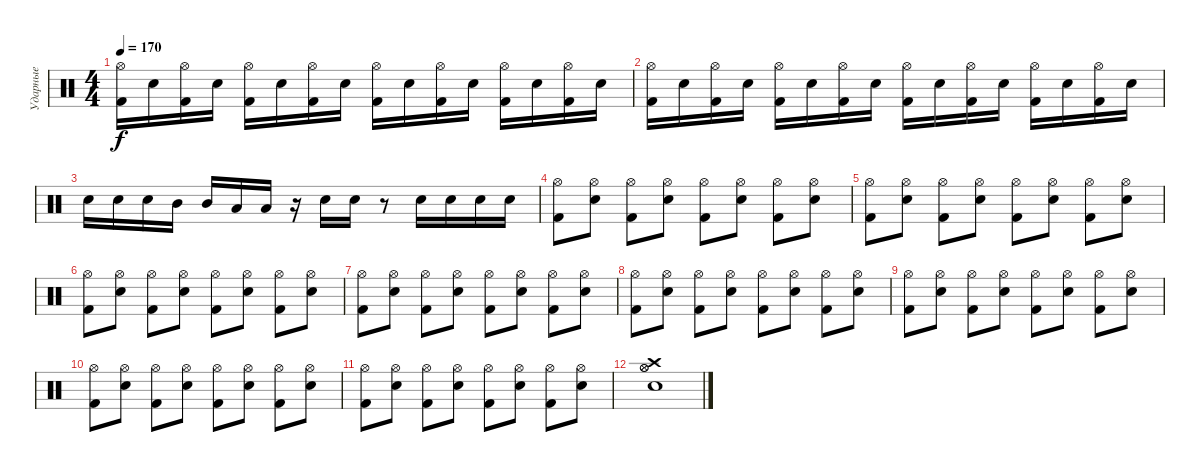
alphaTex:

\track ("Ударные" "Ударные") {instrument percussion}
\staff {score}
\articulation defaults
\ts (4 4)
\tempo 170
\clef neutral
\ks c
("Hi-Hat (open)" "Kick (hit) 2").16{dy f} "Snare (hit) 2".16 ("Hi-Hat (open)" "Kick (hit) 2").16 "Snare (hit) 2".16 ("Hi-Hat (open)" "Kick (hit) 2").16 "Snare (hit) 2".16 ("Hi-Hat (open)" "Kick (hit) 2").16 "Snare (hit) 2".16 ("Hi-Hat (open)" "Kick (hit) 2").16 "Snare (hit) 2".16 ("Hi-Hat (open)" "Kick (hit) 2").16 "Snare (hit) 2".16 ("Hi-Hat (open)" "Kick (hit) 2").16 "Snare (hit) 2".16 ("Hi-Hat (open)" "Kick (hit) 2").16 "Snare (hit) 2".16 |
("Hi-Hat (open)" "Kick (hit) 2").16 "Snare (hit) 2".16 ("Hi-Hat (open)" "Kick (hit) 2").16 "Snare (hit) 2".16 ("Hi-Hat (open)" "Kick (hit) 2").16 "Snare (hit) 2".16 ("Hi-Hat (open)" "Kick (hit) 2").16 "Snare (hit) 2".16 ("Hi-Hat (open)" "Kick (hit) 2").16 "Snare (hit) 2".16 ("Hi-Hat (open)" "Kick (hit) 2").16 "Snare (hit) 2".16 ("Hi-Hat (open)" "Kick (hit) 2").16 "Snare (hit) 2".16 ("Hi-Hat (open)" "Kick (hit) 2").16 "Snare (hit) 2".16 |
"Snare (hit) 2".16 "Snare (hit) 2".16 "Snare (hit) 2".16 "Mid Tom (hit)".16 "Mid Tom (hit)".16 "Low Tom (hit)".16 "Low Tom (hit)".16 r.16 "Snare (hit) 2".16 "Snare (hit) 2".16 r.8 "Snare (hit) 2".16 "Snare (hit) 2".16 "Snare (hit) 2".16 "Snare (hit) 2".16 |
("Hi-Hat (open)" "Kick (hit) 2").8 ("Hi-Hat (open)" "Snare (hit) 2").8 ("Hi-Hat (open)" "Kick (hit) 2").8 ("Hi-Hat (open)" "Snare (hit) 2").8 ("Hi-Hat (open)" "Kick (hit) 2").8 ("Hi-Hat (open)" "Snare (hit) 2").8 ("Hi-Hat (open)" "Kick (hit) 2").8 ("Hi-Hat (open)" "Snare (hit) 2").8 |
("Hi-Hat (open)" "Kick (hit) 2").8 ("Hi-Hat (open)" "Snare (hit) 2").8 ("Hi-Hat (open)" "Kick (hit) 2").8 ("Hi-Hat (open)" "Snare (hit) 2").8 ("Hi-Hat (open)" "Kick (hit) 2").8 ("Hi-Hat (open)" "Snare (hit) 2").8 ("Hi-Hat (open)" "Kick (hit) 2").8 ("Hi-Hat (open)" "Snare (hit) 2").8 |
("Hi-Hat (open)" "Kick (hit) 2").8 ("Hi-Hat (open)" "Snare (hit) 2").8 ("Hi-Hat (open)" "Kick (hit) 2").8 ("Hi-Hat (open)" "Snare (hit) 2").8 ("Hi-Hat (open)" "Kick (hit) 2").8 ("Hi-Hat (open)" "Snare (hit) 2").8 ("Hi-Hat (open)" "Kick (hit) 2").8 ("Hi-Hat (open)" "Snare (hit) 2").8 |
("Hi-Hat (open)" "Kick (hit) 2").8 ("Hi-Hat (open)" "Snare (hit) 2").8 ("Hi-Hat (open)" "Kick (hit) 2").8 ("Hi-Hat (open)" "Snare (hit) 2").8 ("Hi-Hat (open)" "Kick (hit) 2").8 ("Hi-Hat (open)" "Snare (hit) 2").8 ("Hi-Hat (open)" "Kick (hit) 2").8 ("Hi-Hat (open)" "Snare (hit) 2").8 |
("Hi-Hat (open)" "Kick (hit) 2").8 ("Hi-Hat (open)" "Snare (hit) 2").8 ("Hi-Hat (open)" "Kick (hit) 2").8 ("Hi-Hat (open)" "Snare (hit) 2").8 ("Hi-Hat (open)" "Kick (hit) 2").8 ("Hi-Hat (open)" "Snare (hit) 2").8 ("Hi-Hat (open)" "Kick (hit) 2").8 ("Hi-Hat (open)" "Snare (hit) 2").8 |
("Hi-Hat (open)" "Kick (hit) 2").8 ("Hi-Hat (open)" "Snare (hit) 2").8 ("Hi-Hat (open)" "Kick (hit) 2").8 ("Hi-Hat (open)" "Snare (hit) 2").8 ("Hi-Hat (open)" "Kick (hit) 2").8 ("Hi-Hat (open)" "Snare (hit) 2").8 ("Hi-Hat (open)" "Kick (hit) 2").8 ("Hi-Hat (open)" "Snare (hit) 2").8 |
("Hi-Hat (open)" "Kick (hit) 2").8 ("Hi-Hat (open)" "Snare (hit) 2").8 ("Hi-Hat (open)" "Kick (hit) 2").8 ("Hi-Hat (open)" "Snare (hit) 2").8 ("Hi-Hat (open)" "Kick (hit) 2").8 ("Hi-Hat (open)" "Snare (hit) 2").8 ("Hi-Hat (open)" "Kick (hit) 2").8 ("Hi-Hat (open)" "Snare (hit) 2").8 |
("Hi-Hat (open)" "Kick (hit) 2").8 ("Hi-Hat (open)" "Snare (hit) 2").8 ("Hi-Hat (open)" "Kick (hit) 2").8 ("Hi-Hat (open)" "Snare (hit) 2").8 ("Hi-Hat (open)" "Kick (hit) 2").8 ("Hi-Hat (open)" "Snare (hit) 2").8 ("Hi-Hat (open)" "Kick (hit) 2").8 ("Hi-Hat (open)" "Snare (hit) 2").8 |
("Hi-Hat (open)" "Hi-Hat (open)" "Crash high (hit)" "Snare (hit) 2").1
